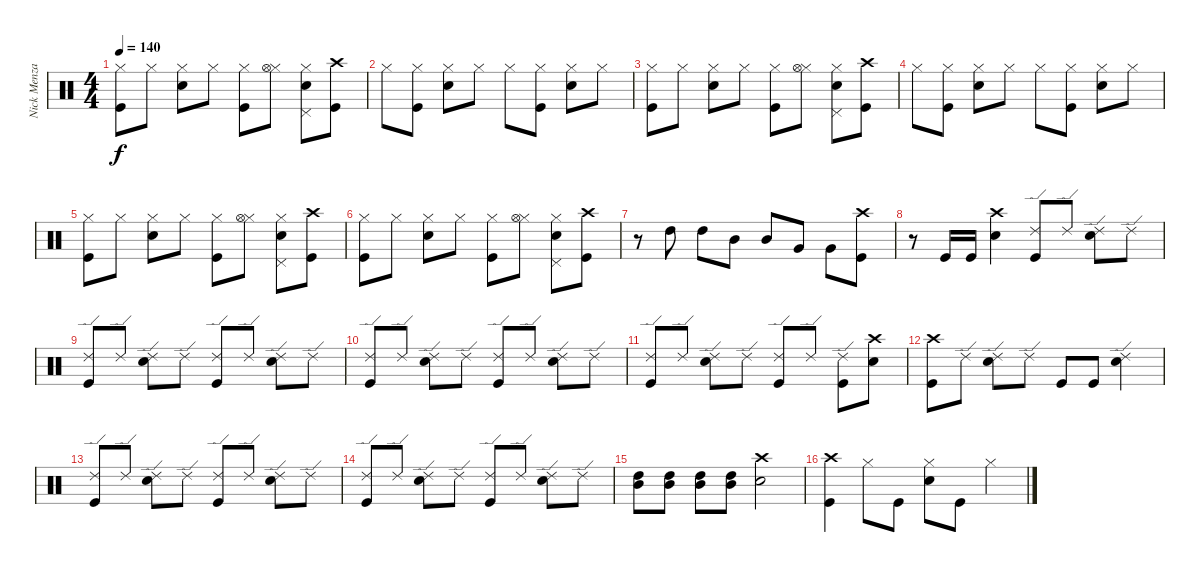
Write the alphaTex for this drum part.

\track ("Nick Menza (Drums)" "Nick Menza") {instrument percussion}
\staff {score}
\articulation defaults
\ts (4 4)
\tempo 140
\clef neutral
\ks c
("Hi-Hat (closed)" "Kick (hit)").8{dy f} "Hi-Hat (closed)".8 ("Hi-Hat (closed)" "Snare (hit) 2").8 "Hi-Hat (closed)".8 ("Hi-Hat (closed)" "Kick (hit)").8 ("Hi-Hat (closed)" "Hi-Hat (open)").8 ("Hi-Hat (closed)" "Snare (hit) 2" "Pedal Hi-Hat (hit)").8 ("Crash high (hit)" "Kick (hit)").8 |
"Hi-Hat (closed)".8 ("Hi-Hat (closed)" "Kick (hit)").8 ("Hi-Hat (closed)" "Snare (hit) 2").8 "Hi-Hat (closed)".8 "Hi-Hat (closed)".8 ("Hi-Hat (closed)" "Kick (hit)").8 ("Hi-Hat (closed)" "Snare (hit) 2").8 "Hi-Hat (closed)".8 |
("Hi-Hat (closed)" "Kick (hit)").8 "Hi-Hat (closed)".8 ("Hi-Hat (closed)" "Snare (hit) 2").8 "Hi-Hat (closed)".8 ("Hi-Hat (closed)" "Kick (hit)").8 ("Hi-Hat (closed)" "Hi-Hat (open)").8 ("Hi-Hat (closed)" "Snare (hit) 2" "Pedal Hi-Hat (hit)").8 ("Crash high (hit)" "Kick (hit)").8 |
"Hi-Hat (closed)".8 ("Hi-Hat (closed)" "Kick (hit)").8 ("Hi-Hat (closed)" "Snare (hit) 2").8 "Hi-Hat (closed)".8 "Hi-Hat (closed)".8 ("Hi-Hat (closed)" "Kick (hit)").8 ("Hi-Hat (closed)" "Snare (hit) 2").8 "Hi-Hat (closed)".8 |
("Hi-Hat (closed)" "Kick (hit)").8 "Hi-Hat (closed)".8 ("Hi-Hat (closed)" "Snare (hit) 2").8 "Hi-Hat (closed)".8 ("Hi-Hat (closed)" "Kick (hit)").8 ("Hi-Hat (closed)" "Hi-Hat (open)").8 ("Hi-Hat (closed)" "Snare (hit) 2" "Pedal Hi-Hat (hit)").8 ("Crash high (hit)" "Kick (hit)").8 |
("Hi-Hat (closed)" "Kick (hit)").8 "Hi-Hat (closed)".8 ("Hi-Hat (closed)" "Snare (hit) 2").8 "Hi-Hat (closed)".8 ("Hi-Hat (closed)" "Kick (hit)").8 ("Hi-Hat (closed)" "Hi-Hat (open)").8 ("Hi-Hat (closed)" "Snare (hit) 2" "Pedal Hi-Hat (hit)").8 ("Crash high (hit)" "Kick (hit)").8 |
r.8 "High Tom (hit)".8 "High Tom (hit)".8 "Mid Tom (hit)".8 "Mid Tom (hit)".8 "Very Low Tom (hit)".8 "Very Low Tom (hit)".8 ("Crash high (hit)" "Kick (hit)").8 |
r.8 "Kick (hit)".16 "Kick (hit)".16 ("Crash high (hit)" "Snare (hit) 2").4 ("Ride (edge) 2" "Kick (hit)").8 "Ride (edge) 2".8 ("Ride (edge) 2" "Snare (hit) 2").8 "Ride (edge) 2".8 |
("Ride (edge) 2" "Kick (hit)").8 "Ride (edge) 2".8 ("Ride (edge) 2" "Snare (hit) 2").8 "Ride (edge) 2".8 ("Ride (edge) 2" "Kick (hit)").8 "Ride (edge) 2".8 ("Ride (edge) 2" "Snare (hit) 2").8 "Ride (edge) 2".8 |
("Ride (edge) 2" "Kick (hit)").8 "Ride (edge) 2".8 ("Ride (edge) 2" "Snare (hit) 2").8 "Ride (edge) 2".8 ("Ride (edge) 2" "Kick (hit)").8 "Ride (edge) 2".8 ("Ride (edge) 2" "Snare (hit) 2").8 "Ride (edge) 2".8 |
("Ride (edge) 2" "Kick (hit)").8 "Ride (edge) 2".8 ("Ride (edge) 2" "Snare (hit) 2").8 "Ride (edge) 2".8 ("Ride (edge) 2" "Kick (hit)").8 "Ride (edge) 2".8 ("Ride (edge) 2" "Kick (hit)").8 ("Crash high (hit)" "Snare (hit) 2").8 |
("Crash high (hit)" "Kick (hit)").8 "Ride (edge) 2".8 ("Ride (edge) 2" "Snare (hit) 2").8 "Ride (edge) 2".8 "Kick (hit)".8 "Kick (hit)".8 ("Ride (edge) 2" "Snare (hit) 2").4 |
("Ride (edge) 2" "Kick (hit)").8 "Ride (edge) 2".8 ("Ride (edge) 2" "Snare (hit) 2").8 "Ride (edge) 2".8 ("Ride (edge) 2" "Kick (hit)").8 "Ride (edge) 2".8 ("Ride (edge) 2" "Snare (hit) 2").8 "Ride (edge) 2".8 |
("Ride (edge) 2" "Kick (hit)").8 "Ride (edge) 2".8 ("Ride (edge) 2" "Snare (hit) 2").8 "Ride (edge) 2".8 ("Ride (edge) 2" "Kick (hit)").8 "Ride (edge) 2".8 ("Ride (edge) 2" "Snare (hit) 2").8 "Ride (edge) 2".8 |
("High Tom (hit)" "Mid Tom (hit)").8 ("High Tom (hit)" "Mid Tom (hit)").8 ("High Tom (hit)" "Mid Tom (hit)").8 ("High Tom (hit)" "Mid Tom (hit)").8 ("Crash high (hit)" "Snare (hit) 2").2 |
("Crash high (hit)" "Kick (hit)").4 "Hi-Hat (closed)".8 "Kick (hit)".8 ("Hi-Hat (closed)" "Snare (hit) 2").8 "Kick (hit)".8 "Hi-Hat (closed)".4
